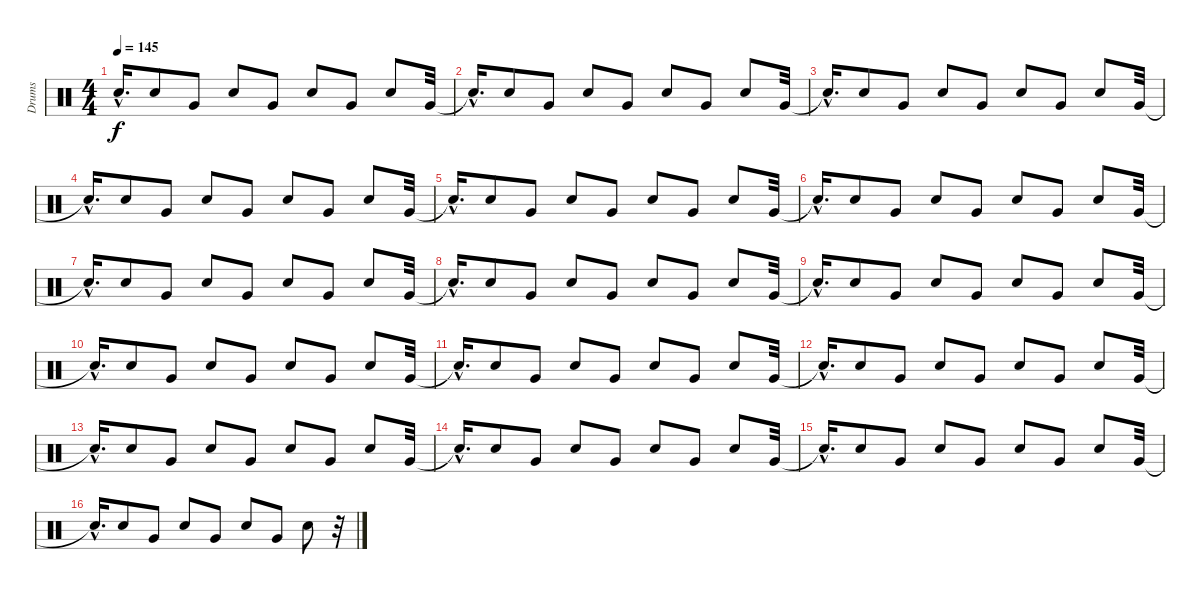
\track ("Drums" "Drums") {instrument percussion}
\staff {score}
\articulation defaults
\ts (4 4)
\tempo 145
\clef neutral
\ks c "Snare (hit)"{hac t}.16{d dy f} "Snare (hit) 2".8 "Very Low Tom (hit)".8 "Snare (hit) 2".8 "Very Low Tom (hit)".8 "Snare (hit) 2".8 "Very Low Tom (hit)".8 "Snare (hit) 2".8 "Very Low Tom (hit)".32
|
"Snare (hit)"{hac t}.16{d} "Snare (hit) 2".8 "Very Low Tom (hit)".8 "Snare (hit) 2".8 "Very Low Tom (hit)".8 "Snare (hit) 2".8 "Very Low Tom (hit)".8 "Snare (hit) 2".8 "Very Low Tom (hit)".32 |
"Snare (hit)"{hac t}.16{d} "Snare (hit) 2".8 "Very Low Tom (hit)".8 "Snare (hit) 2".8 "Very Low Tom (hit)".8 "Snare (hit) 2".8 "Very Low Tom (hit)".8 "Snare (hit) 2".8 "Very Low Tom (hit)".32 |
"Snare (hit)"{hac t}.16{d} "Snare (hit) 2".8 "Very Low Tom (hit)".8 "Snare (hit) 2".8 "Very Low Tom (hit)".8 "Snare (hit) 2".8 "Very Low Tom (hit)".8 "Snare (hit) 2".8 "Very Low Tom (hit)".32 |
"Snare (hit)"{hac t}.16{d} "Snare (hit) 2".8 "Very Low Tom (hit)".8 "Snare (hit) 2".8 "Very Low Tom (hit)".8 "Snare (hit) 2".8 "Very Low Tom (hit)".8 "Snare (hit) 2".8 "Very Low Tom (hit)".32 |
"Snare (hit)"{hac t}.16{d} "Snare (hit) 2".8 "Very Low Tom (hit)".8 "Snare (hit) 2".8 "Very Low Tom (hit)".8 "Snare (hit) 2".8 "Very Low Tom (hit)".8 "Snare (hit) 2".8 "Very Low Tom (hit)".32 |
"Snare (hit)"{hac t}.16{d} "Snare (hit) 2".8 "Very Low Tom (hit)".8 "Snare (hit) 2".8 "Very Low Tom (hit)".8 "Snare (hit) 2".8 "Very Low Tom (hit)".8 "Snare (hit) 2".8 "Very Low Tom (hit)".32 |
"Snare (hit)"{hac t}.16{d} "Snare (hit) 2".8 "Very Low Tom (hit)".8 "Snare (hit) 2".8 "Very Low Tom (hit)".8 "Snare (hit) 2".8 "Very Low Tom (hit)".8 "Snare (hit) 2".8 "Very Low Tom (hit)".32 |
"Snare (hit)"{hac t}.16{d} "Snare (hit) 2".8 "Very Low Tom (hit)".8 "Snare (hit) 2".8 "Very Low Tom (hit)".8 "Snare (hit) 2".8 "Very Low Tom (hit)".8 "Snare (hit) 2".8 "Very Low Tom (hit)".32 |
"Snare (hit)"{hac t}.16{d} "Snare (hit) 2".8 "Very Low Tom (hit)".8 "Snare (hit) 2".8 "Very Low Tom (hit)".8 "Snare (hit) 2".8 "Very Low Tom (hit)".8 "Snare (hit) 2".8 "Very Low Tom (hit)".32 |
"Snare (hit)"{hac t}.16{d} "Snare (hit) 2".8 "Very Low Tom (hit)".8 "Snare (hit) 2".8 "Very Low Tom (hit)".8 "Snare (hit) 2".8 "Very Low Tom (hit)".8 "Snare (hit) 2".8 "Very Low Tom (hit)".32 |
"Snare (hit)"{hac t}.16{d} "Snare (hit) 2".8 "Very Low Tom (hit)".8 "Snare (hit) 2".8 "Very Low Tom (hit)".8 "Snare (hit) 2".8 "Very Low Tom (hit)".8 "Snare (hit) 2".8 "Very Low Tom (hit)".32 |
"Snare (hit)"{hac t}.16{d} "Snare (hit) 2".8 "Very Low Tom (hit)".8 "Snare (hit) 2".8 "Very Low Tom (hit)".8 "Snare (hit) 2".8 "Very Low Tom (hit)".8 "Snare (hit) 2".8 "Very Low Tom (hit)".32 |
"Snare (hit)"{hac t}.16{d} "Snare (hit) 2".8 "Very Low Tom (hit)".8 "Snare (hit) 2".8 "Very Low Tom (hit)".8 "Snare (hit) 2".8 "Very Low Tom (hit)".8 "Snare (hit) 2".8 "Very Low Tom (hit)".32 |
"Snare (hit)"{hac t}.16{d} "Snare (hit) 2".8 "Very Low Tom (hit)".8 "Snare (hit) 2".8 "Very Low Tom (hit)".8 "Snare (hit) 2".8 "Very Low Tom (hit)".8 "Snare (hit) 2".8 "Very Low Tom (hit)".32 |
"Snare (hit)"{hac t}.16{d} "Snare (hit) 2".8 "Very Low Tom (hit)".8 "Snare (hit) 2".8 "Very Low Tom (hit)".8 "Snare (hit) 2".8 "Very Low Tom (hit)".8 "Snare (hit) 2".8 r.32
